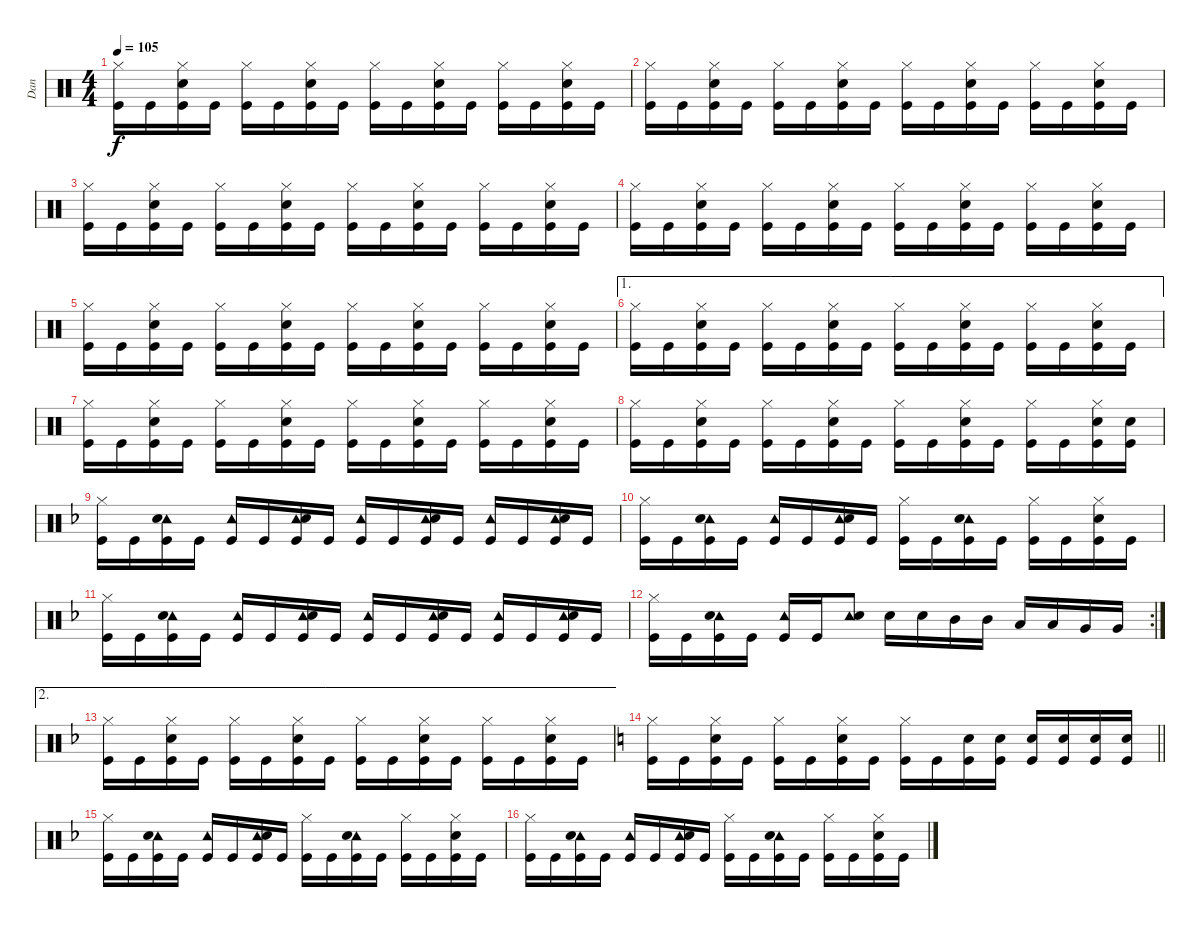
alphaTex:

\track ("Dan" "Dan") {instrument percussion}
\staff {score}
\articulation defaults
\ts (4 4)
\tempo 105
\clef neutral
\ks c
("Hi-Hat (closed)" "Kick (hit)").16{dy f} "Kick (hit)".16 ("Hi-Hat (closed)" "Snare (hit) 2" "Kick (hit)").16 "Kick (hit)".16 ("Hi-Hat (closed)" "Kick (hit)").16 "Kick (hit)".16 ("Hi-Hat (closed)" "Snare (hit) 2" "Kick (hit)").16 "Kick (hit)".16 ("Hi-Hat (closed)" "Kick (hit)").16 "Kick (hit)".16 ("Hi-Hat (closed)" "Snare (hit) 2" "Kick (hit)").16 "Kick (hit)".16 ("Hi-Hat (closed)" "Kick (hit)").16 "Kick (hit)".16 ("Hi-Hat (closed)" "Snare (hit) 2" "Kick (hit)").16 "Kick (hit)".16 |
("Hi-Hat (closed)" "Kick (hit)").16 "Kick (hit)".16 ("Hi-Hat (closed)" "Snare (hit) 2" "Kick (hit)").16 "Kick (hit)".16 ("Hi-Hat (closed)" "Kick (hit)").16 "Kick (hit)".16 ("Hi-Hat (closed)" "Snare (hit) 2" "Kick (hit)").16 "Kick (hit)".16 ("Hi-Hat (closed)" "Kick (hit)").16 "Kick (hit)".16 ("Hi-Hat (closed)" "Snare (hit) 2" "Kick (hit)").16 "Kick (hit)".16 ("Hi-Hat (closed)" "Kick (hit)").16 "Kick (hit)".16 ("Hi-Hat (closed)" "Snare (hit) 2" "Kick (hit)").16 "Kick (hit)".16 |
("Hi-Hat (closed)" "Kick (hit)").16 "Kick (hit)".16 ("Hi-Hat (closed)" "Snare (hit) 2" "Kick (hit)").16 "Kick (hit)".16 ("Hi-Hat (closed)" "Kick (hit)").16 "Kick (hit)".16 ("Hi-Hat (closed)" "Snare (hit) 2" "Kick (hit)").16 "Kick (hit)".16 ("Hi-Hat (closed)" "Kick (hit)").16 "Kick (hit)".16 ("Hi-Hat (closed)" "Snare (hit) 2" "Kick (hit)").16 "Kick (hit)".16 ("Hi-Hat (closed)" "Kick (hit)").16 "Kick (hit)".16 ("Hi-Hat (closed)" "Snare (hit) 2" "Kick (hit)").16 "Kick (hit)".16 |
("Hi-Hat (closed)" "Kick (hit)").16 "Kick (hit)".16 ("Hi-Hat (closed)" "Snare (hit) 2" "Kick (hit)").16 "Kick (hit)".16 ("Hi-Hat (closed)" "Kick (hit)").16 "Kick (hit)".16 ("Hi-Hat (closed)" "Snare (hit) 2" "Kick (hit)").16 "Kick (hit)".16 ("Hi-Hat (closed)" "Kick (hit)").16 "Kick (hit)".16 ("Hi-Hat (closed)" "Snare (hit) 2" "Kick (hit)").16 "Kick (hit)".16 ("Hi-Hat (closed)" "Kick (hit)").16 "Kick (hit)".16 ("Hi-Hat (closed)" "Snare (hit) 2" "Kick (hit)").16 "Kick (hit)".16 |
("Hi-Hat (closed)" "Kick (hit)").16 "Kick (hit)".16 ("Hi-Hat (closed)" "Snare (hit) 2" "Kick (hit)").16 "Kick (hit)".16 ("Hi-Hat (closed)" "Kick (hit)").16 "Kick (hit)".16 ("Hi-Hat (closed)" "Snare (hit) 2" "Kick (hit)").16 "Kick (hit)".16 ("Hi-Hat (closed)" "Kick (hit)").16 "Kick (hit)".16 ("Hi-Hat (closed)" "Snare (hit) 2" "Kick (hit)").16 "Kick (hit)".16 ("Hi-Hat (closed)" "Kick (hit)").16 "Kick (hit)".16 ("Hi-Hat (closed)" "Snare (hit) 2" "Kick (hit)").16 "Kick (hit)".16 |
\ae 1
("Hi-Hat (closed)" "Kick (hit)").16 "Kick (hit)".16 ("Hi-Hat (closed)" "Snare (hit) 2" "Kick (hit)").16 "Kick (hit)".16 ("Hi-Hat (closed)" "Kick (hit)").16 "Kick (hit)".16 ("Hi-Hat (closed)" "Snare (hit) 2" "Kick (hit)").16 "Kick (hit)".16 ("Hi-Hat (closed)" "Kick (hit)").16 "Kick (hit)".16 ("Hi-Hat (closed)" "Snare (hit) 2" "Kick (hit)").16 "Kick (hit)".16 ("Hi-Hat (closed)" "Kick (hit)").16 "Kick (hit)".16 ("Hi-Hat (closed)" "Snare (hit) 2" "Kick (hit)").16 "Kick (hit)".16 |
("Hi-Hat (closed)" "Kick (hit)").16 "Kick (hit)".16 ("Hi-Hat (closed)" "Snare (hit) 2" "Kick (hit)").16 "Kick (hit)".16 ("Hi-Hat (closed)" "Kick (hit)").16 "Kick (hit)".16 ("Hi-Hat (closed)" "Snare (hit) 2" "Kick (hit)").16 "Kick (hit)".16 ("Hi-Hat (closed)" "Kick (hit)").16 "Kick (hit)".16 ("Hi-Hat (closed)" "Snare (hit) 2" "Kick (hit)").16 "Kick (hit)".16 ("Hi-Hat (closed)" "Kick (hit)").16 "Kick (hit)".16 ("Hi-Hat (closed)" "Snare (hit) 2" "Kick (hit)").16 "Kick (hit)".16 |
("Hi-Hat (closed)" "Kick (hit)").16 "Kick (hit)".16 ("Hi-Hat (closed)" "Snare (hit) 2" "Kick (hit)").16 "Kick (hit)".16 ("Hi-Hat (closed)" "Kick (hit)").16 "Kick (hit)".16 ("Hi-Hat (closed)" "Snare (hit) 2" "Kick (hit)").16 "Kick (hit)".16 ("Hi-Hat (closed)" "Kick (hit)").16 "Kick (hit)".16 ("Hi-Hat (closed)" "Snare (hit) 2" "Kick (hit)").16 "Kick (hit)".16 ("Hi-Hat (closed)" "Kick (hit)").16 "Kick (hit)".16 ("Hi-Hat (closed)" "Snare (hit) 2" "Kick (hit)").16 ("Snare (hit) 2" "Kick (hit)").16 |
\ks f
("Hi-Hat (closed)" "Kick (hit)").16 "Kick (hit)".16 ("Tambourine (hit)" "Snare (hit) 2" "Kick (hit)").16 "Kick (hit)".16 ("Tambourine (hit)" "Kick (hit)").16 "Kick (hit)".16 ("Tambourine (hit)" "Snare (hit) 2" "Kick (hit)").16 "Kick (hit)".16 ("Tambourine (hit)" "Kick (hit)").16 "Kick (hit)".16 ("Tambourine (hit)" "Snare (hit) 2" "Kick (hit)").16 "Kick (hit)".16 ("Tambourine (hit)" "Kick (hit)").16 "Kick (hit)".16 ("Tambourine (hit)" "Snare (hit) 2" "Kick (hit)").16 "Kick (hit)".16 |
("Hi-Hat (closed)" "Kick (hit)").16 "Kick (hit)".16 ("Tambourine (hit)" "Snare (hit) 2" "Kick (hit)").16 "Kick (hit)".16 ("Tambourine (hit)" "Kick (hit)").16 "Kick (hit)".16 ("Tambourine (hit)" "Snare (hit) 2" "Kick (hit)").16 "Kick (hit)".16 ("Hi-Hat (closed)" "Kick (hit)").16 "Kick (hit)".16 ("Tambourine (hit)" "Snare (hit) 2" "Kick (hit)").16 "Kick (hit)".16 ("Hi-Hat (closed)" "Kick (hit)").16 "Kick (hit)".16 ("Hi-Hat (closed)" "Snare (hit) 2" "Kick (hit)").16 "Kick (hit)".16 |
("Hi-Hat (closed)" "Kick (hit)").16 "Kick (hit)".16 ("Tambourine (hit)" "Snare (hit) 2" "Kick (hit)").16 "Kick (hit)".16 ("Tambourine (hit)" "Kick (hit)").16 "Kick (hit)".16 ("Tambourine (hit)" "Snare (hit) 2" "Kick (hit)").16 "Kick (hit)".16 ("Tambourine (hit)" "Kick (hit)").16 "Kick (hit)".16 ("Tambourine (hit)" "Snare (hit) 2" "Kick (hit)").16 "Kick (hit)".16 ("Tambourine (hit)" "Kick (hit)").16 "Kick (hit)".16 ("Tambourine (hit)" "Snare (hit) 2" "Kick (hit)").16 "Kick (hit)".16 |
\rc 2
("Hi-Hat (closed)" "Kick (hit)").16 "Kick (hit)".16 ("Tambourine (hit)" "Snare (hit) 2" "Kick (hit)").16 "Kick (hit)".16 ("Tambourine (hit)" "Kick (hit)").16 "Kick (hit)".16 ("Tambourine (hit)" "Snare (hit) 2").8 "Snare (hit) 2".16 "Snare (hit) 2".16 "Mid Tom (hit)".16 "Mid Tom (hit)".16 "Low Tom (hit)".16 "Low Tom (hit)".16 "Very Low Tom (hit)".16 "Very Low Tom (hit)".16 |
\ae 2
("Hi-Hat (closed)" "Kick (hit)").16 "Kick (hit)".16 ("Hi-Hat (closed)" "Snare (hit) 2" "Kick (hit)").16 "Kick (hit)".16 ("Hi-Hat (closed)" "Kick (hit)").16 "Kick (hit)".16 ("Hi-Hat (closed)" "Snare (hit) 2" "Kick (hit)").16 "Kick (hit)".16 ("Hi-Hat (closed)" "Kick (hit)").16 "Kick (hit)".16 ("Hi-Hat (closed)" "Snare (hit) 2" "Kick (hit)").16 "Kick (hit)".16 ("Hi-Hat (closed)" "Kick (hit)").16 "Kick (hit)".16 ("Hi-Hat (closed)" "Snare (hit) 2" "Kick (hit)").16 "Kick (hit)".16 |
\barLineRight lightlight
\ks c
("Hi-Hat (closed)" "Kick (hit)").16 "Kick (hit)".16 ("Hi-Hat (closed)" "Snare (hit) 2" "Kick (hit)").16 "Kick (hit)".16 ("Hi-Hat (closed)" "Kick (hit)").16 "Kick (hit)".16 ("Hi-Hat (closed)" "Snare (hit) 2" "Kick (hit)").16 "Kick (hit)".16 ("Hi-Hat (closed)" "Kick (hit)").16 "Kick (hit)".16 ("Snare (hit) 2" "Kick (hit)").16 ("Snare (hit) 2" "Kick (hit)").16 ("Snare (hit) 2" "Kick (hit)").16 ("Snare (hit) 2" "Kick (hit)").16 ("Snare (hit) 2" "Kick (hit)").16 ("Snare (hit) 2" "Kick (hit)").16 |
\ks f
("Hi-Hat (closed)" "Kick (hit)").16 "Kick (hit)".16 ("Tambourine (hit)" "Snare (hit) 2" "Kick (hit)").16 "Kick (hit)".16 ("Tambourine (hit)" "Kick (hit)").16 "Kick (hit)".16 ("Tambourine (hit)" "Snare (hit) 2" "Kick (hit)").16 "Kick (hit)".16 ("Hi-Hat (closed)" "Kick (hit)").16 "Kick (hit)".16 ("Tambourine (hit)" "Snare (hit) 2" "Kick (hit)").16 "Kick (hit)".16 ("Hi-Hat (closed)" "Kick (hit)").16 "Kick (hit)".16 ("Hi-Hat (closed)" "Snare (hit) 2" "Kick (hit)").16 "Kick (hit)".16 |
("Hi-Hat (closed)" "Kick (hit)").16 "Kick (hit)".16 ("Tambourine (hit)" "Snare (hit) 2" "Kick (hit)").16 "Kick (hit)".16 ("Tambourine (hit)" "Kick (hit)").16 "Kick (hit)".16 ("Tambourine (hit)" "Snare (hit) 2" "Kick (hit)").16 "Kick (hit)".16 ("Hi-Hat (closed)" "Kick (hit)").16 "Kick (hit)".16 ("Tambourine (hit)" "Snare (hit) 2" "Kick (hit)").16 "Kick (hit)".16 ("Hi-Hat (closed)" "Kick (hit)").16 "Kick (hit)".16 ("Hi-Hat (closed)" "Snare (hit) 2" "Kick (hit)").16 "Kick (hit)".16
